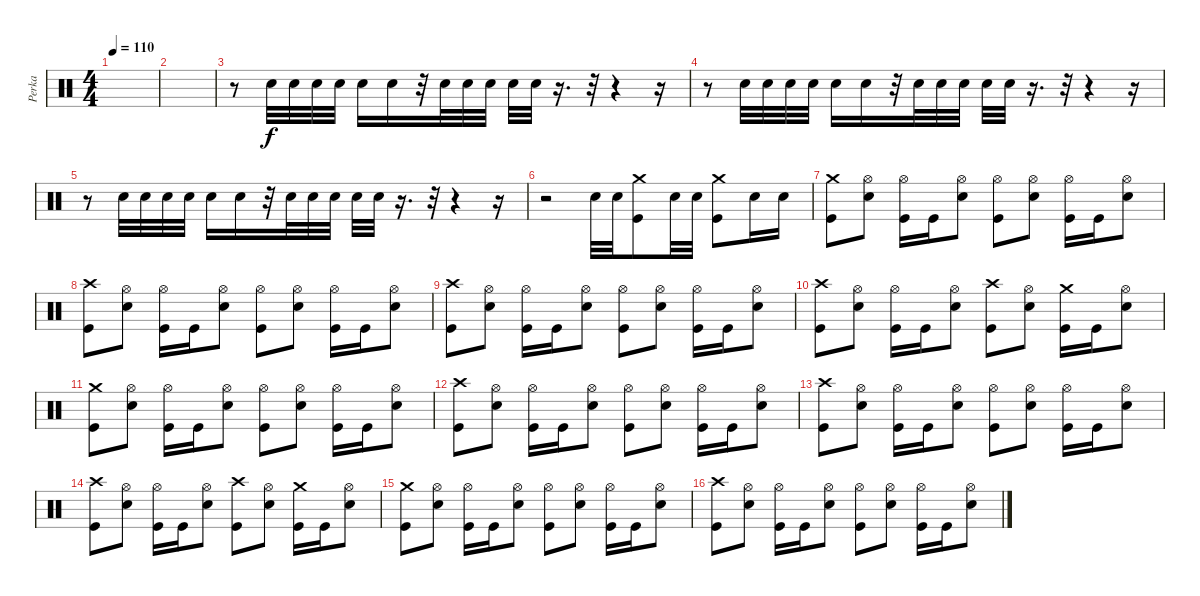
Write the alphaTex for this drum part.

\track ("Perka" "Perka") {instrument percussion}
\staff {score}
\articulation defaults
\ts (4 4)
\tempo 110
\clef neutral
\ks c
|
|
r.8 "Snare (hit) 2".32 "Snare (hit) 2".32 "Snare (hit) 2".32 "Snare (hit) 2".32 "Snare (hit) 2".16 "Snare (hit) 2".16 r.32 "Snare (hit) 2".32 "Snare (hit) 2".32 "Snare (hit) 2".32 "Snare (hit) 2".32 "Snare (hit) 2".32 r.16{d} r.32 r.4 r.16 |
r.8 "Snare (hit) 2".32 "Snare (hit) 2".32 "Snare (hit) 2".32 "Snare (hit) 2".32 "Snare (hit) 2".16 "Snare (hit) 2".16 r.32 "Snare (hit) 2".32 "Snare (hit) 2".32 "Snare (hit) 2".32 "Snare (hit) 2".32 "Snare (hit) 2".32 r.16{d} r.32 r.4 r.16 |
r.8 "Snare (hit) 2".32 "Snare (hit) 2".32 "Snare (hit) 2".32 "Snare (hit) 2".32 "Snare (hit) 2".16 "Snare (hit) 2".16 r.32 "Snare (hit) 2".32 "Snare (hit) 2".32 "Snare (hit) 2".32 "Snare (hit) 2".32 "Snare (hit) 2".32 r.16{d} r.32 r.4 r.16 |
r.2 "Snare (hit) 2".32 "Snare (hit) 2".32 ("Crash medium (hit)" "Kick (hit)").8 "Snare (hit) 2".32 "Snare (hit) 2".32 ("Crash medium (hit)" "Kick (hit)").8 "Snare (hit) 2".16 "Snare (hit) 2".16 |
("Crash medium (hit)" "Kick (hit)").8 ("Hi-Hat (open)" "Snare (hit) 2").8 ("Hi-Hat (open)" "Kick (hit)").16 "Kick (hit)".16 ("Hi-Hat (open)" "Snare (hit) 2").8 ("Hi-Hat (open)" "Kick (hit)").8 ("Hi-Hat (open)" "Snare (hit) 2").8 ("Hi-Hat (open)" "Kick (hit)").16 "Kick (hit)".16 ("Hi-Hat (open)" "Snare (hit) 2").8 |
("Crash high (hit)" "Kick (hit)").8 ("Hi-Hat (open)" "Snare (hit) 2").8 ("Hi-Hat (open)" "Kick (hit)").16 "Kick (hit)".16 ("Hi-Hat (open)" "Snare (hit) 2").8 ("Hi-Hat (open)" "Kick (hit)").8 ("Hi-Hat (open)" "Snare (hit) 2").8 ("Hi-Hat (open)" "Kick (hit)").16 "Kick (hit)".16 ("Hi-Hat (open)" "Snare (hit) 2").8 |
("Crash high (hit)" "Kick (hit)").8 ("Hi-Hat (open)" "Snare (hit) 2").8 ("Hi-Hat (open)" "Kick (hit)").16 "Kick (hit)".16 ("Hi-Hat (open)" "Snare (hit) 2").8 ("Hi-Hat (open)" "Kick (hit)").8 ("Hi-Hat (open)" "Snare (hit) 2").8 ("Hi-Hat (open)" "Kick (hit)").16 "Kick (hit)".16 ("Hi-Hat (open)" "Snare (hit) 2").8 |
("Crash high (hit)" "Kick (hit)").8 ("Hi-Hat (open)" "Snare (hit) 2").8 ("Hi-Hat (open)" "Kick (hit)").16 "Kick (hit)".16 ("Hi-Hat (open)" "Snare (hit) 2").8 ("Crash high (hit)" "Kick (hit)").8 ("Hi-Hat (open)" "Snare (hit) 2").8 ("Crash medium (hit)" "Kick (hit)").16 "Kick (hit)".16 ("Hi-Hat (open)" "Snare (hit) 2").8 |
("Crash medium (hit)" "Kick (hit)").8 ("Hi-Hat (open)" "Snare (hit) 2").8 ("Hi-Hat (open)" "Kick (hit)").16 "Kick (hit)".16 ("Hi-Hat (open)" "Snare (hit) 2").8 ("Hi-Hat (open)" "Kick (hit)").8 ("Hi-Hat (open)" "Snare (hit) 2").8 ("Hi-Hat (open)" "Kick (hit)").16 "Kick (hit)".16 ("Hi-Hat (open)" "Snare (hit) 2").8 |
("Crash high (hit)" "Kick (hit)").8 ("Hi-Hat (open)" "Snare (hit) 2").8 ("Hi-Hat (open)" "Kick (hit)").16 "Kick (hit)".16 ("Hi-Hat (open)" "Snare (hit) 2").8 ("Hi-Hat (open)" "Kick (hit)").8 ("Hi-Hat (open)" "Snare (hit) 2").8 ("Hi-Hat (open)" "Kick (hit)").16 "Kick (hit)".16 ("Hi-Hat (open)" "Snare (hit) 2").8 |
("Crash high (hit)" "Kick (hit)").8 ("Hi-Hat (open)" "Snare (hit) 2").8 ("Hi-Hat (open)" "Kick (hit)").16 "Kick (hit)".16 ("Hi-Hat (open)" "Snare (hit) 2").8 ("Hi-Hat (open)" "Kick (hit)").8 ("Hi-Hat (open)" "Snare (hit) 2").8 ("Hi-Hat (open)" "Kick (hit)").16 "Kick (hit)".16 ("Hi-Hat (open)" "Snare (hit) 2").8 |
("Crash high (hit)" "Kick (hit)").8 ("Hi-Hat (open)" "Snare (hit) 2").8 ("Hi-Hat (open)" "Kick (hit)").16 "Kick (hit)".16 ("Hi-Hat (open)" "Snare (hit) 2").8 ("Crash high (hit)" "Kick (hit)").8 ("Hi-Hat (open)" "Snare (hit) 2").8 ("Crash medium (hit)" "Kick (hit)").16 "Kick (hit)".16 ("Hi-Hat (open)" "Snare (hit) 2").8 |
("Crash medium (hit)" "Kick (hit)").8 ("Hi-Hat (open)" "Snare (hit) 2").8 ("Hi-Hat (open)" "Kick (hit)").16 "Kick (hit)".16 ("Hi-Hat (open)" "Snare (hit) 2").8 ("Hi-Hat (open)" "Kick (hit)").8 ("Hi-Hat (open)" "Snare (hit) 2").8 ("Hi-Hat (open)" "Kick (hit)").16 "Kick (hit)".16 ("Hi-Hat (open)" "Snare (hit) 2").8 |
("Crash high (hit)" "Kick (hit)").8 ("Hi-Hat (open)" "Snare (hit) 2").8 ("Hi-Hat (open)" "Kick (hit)").16 "Kick (hit)".16 ("Hi-Hat (open)" "Snare (hit) 2").8 ("Hi-Hat (open)" "Kick (hit)").8 ("Hi-Hat (open)" "Snare (hit) 2").8 ("Hi-Hat (open)" "Kick (hit)").16 "Kick (hit)".16 ("Hi-Hat (open)" "Snare (hit) 2").8
